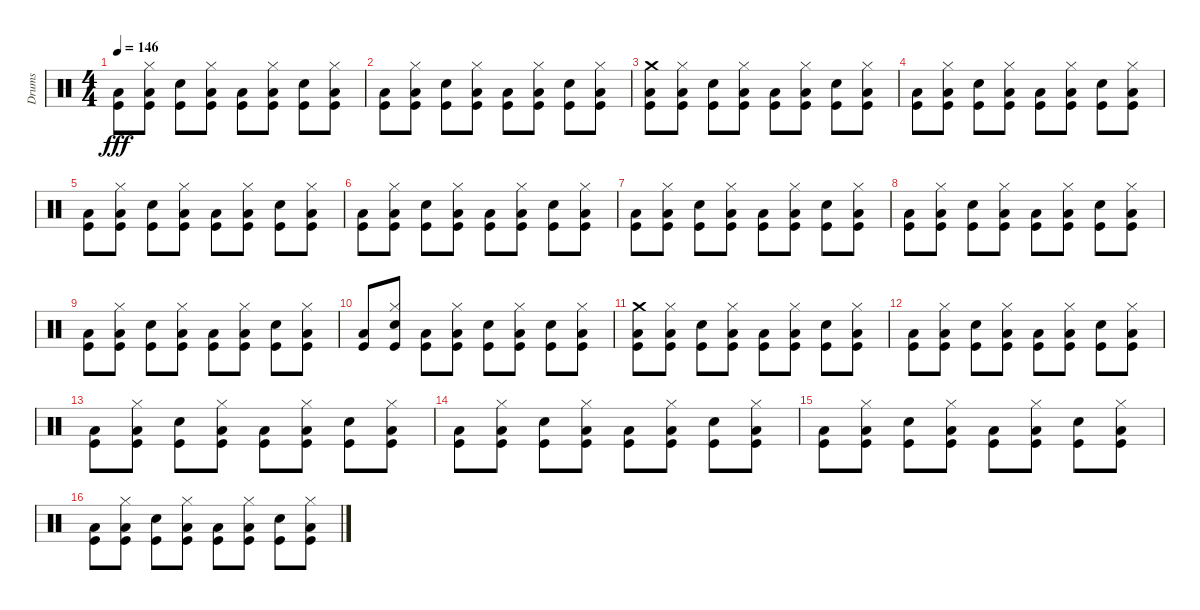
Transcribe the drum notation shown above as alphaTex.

\track ("Drums" "Drums") {instrument percussion}
\staff {score}
\articulation defaults
\ts (4 4)
\tempo 146
\clef neutral
\ks c
("Low Floor Tom (hit)" "Kick (hit)").8{dy fff} ("Hi-Hat (closed)" "Low Floor Tom (hit)" "Kick (hit)").8 ("Electric Snare (hit)" "Kick (hit)").8 ("Hi-Hat (closed)" "Low Floor Tom (hit)" "Kick (hit)").8 ("Low Floor Tom (hit)" "Kick (hit)").8 ("Hi-Hat (closed)" "Low Floor Tom (hit)" "Kick (hit)").8 ("Electric Snare (hit)" "Kick (hit)").8 ("Hi-Hat (closed)" "Low Floor Tom (hit)" "Kick (hit)").8 |
("Low Floor Tom (hit)" "Kick (hit)").8 ("Hi-Hat (closed)" "Low Floor Tom (hit)" "Kick (hit)").8 ("Electric Snare (hit)" "Kick (hit)").8 ("Hi-Hat (closed)" "Low Floor Tom (hit)" "Kick (hit)").8 ("Low Floor Tom (hit)" "Kick (hit)").8 ("Hi-Hat (closed)" "Low Floor Tom (hit)" "Kick (hit)").8 ("Electric Snare (hit)" "Kick (hit)").8 ("Hi-Hat (closed)" "Low Floor Tom (hit)" "Kick (hit)").8 |
("Crash medium (hit)" "Low Floor Tom (hit)" "Kick (hit)").8 ("Hi-Hat (closed)" "Low Floor Tom (hit)" "Kick (hit)").8 ("Electric Snare (hit)" "Kick (hit)").8 ("Hi-Hat (closed)" "Low Floor Tom (hit)" "Kick (hit)").8 ("Low Floor Tom (hit)" "Kick (hit)").8 ("Hi-Hat (closed)" "Low Floor Tom (hit)" "Kick (hit)").8 ("Electric Snare (hit)" "Kick (hit)").8 ("Hi-Hat (closed)" "Low Floor Tom (hit)" "Kick (hit)").8 |
("Low Floor Tom (hit)" "Kick (hit)").8 ("Hi-Hat (closed)" "Low Floor Tom (hit)" "Kick (hit)").8 ("Electric Snare (hit)" "Kick (hit)").8 ("Hi-Hat (closed)" "Low Floor Tom (hit)" "Kick (hit)").8 ("Low Floor Tom (hit)" "Kick (hit)").8 ("Hi-Hat (closed)" "Low Floor Tom (hit)" "Kick (hit)").8 ("Electric Snare (hit)" "Kick (hit)").8 ("Hi-Hat (closed)" "Low Floor Tom (hit)" "Kick (hit)").8 |
("Low Floor Tom (hit)" "Kick (hit)").8 ("Hi-Hat (closed)" "Low Floor Tom (hit)" "Kick (hit)").8 ("Electric Snare (hit)" "Kick (hit)").8 ("Hi-Hat (closed)" "Low Floor Tom (hit)" "Kick (hit)").8 ("Low Floor Tom (hit)" "Kick (hit)").8 ("Hi-Hat (closed)" "Low Floor Tom (hit)" "Kick (hit)").8 ("Electric Snare (hit)" "Kick (hit)").8 ("Hi-Hat (closed)" "Low Floor Tom (hit)" "Kick (hit)").8 |
("Low Floor Tom (hit)" "Kick (hit)").8 ("Hi-Hat (closed)" "Low Floor Tom (hit)" "Kick (hit)").8 ("Electric Snare (hit)" "Kick (hit)").8 ("Hi-Hat (closed)" "Low Floor Tom (hit)" "Kick (hit)").8 ("Low Floor Tom (hit)" "Kick (hit)").8 ("Hi-Hat (closed)" "Low Floor Tom (hit)" "Kick (hit)").8 ("Electric Snare (hit)" "Kick (hit)").8 ("Hi-Hat (closed)" "Low Floor Tom (hit)" "Kick (hit)").8 |
("Low Floor Tom (hit)" "Kick (hit)").8 ("Hi-Hat (closed)" "Low Floor Tom (hit)" "Kick (hit)").8 ("Electric Snare (hit)" "Kick (hit)").8 ("Hi-Hat (closed)" "Low Floor Tom (hit)" "Kick (hit)").8 ("Low Floor Tom (hit)" "Kick (hit)").8 ("Hi-Hat (closed)" "Low Floor Tom (hit)" "Kick (hit)").8 ("Electric Snare (hit)" "Kick (hit)").8 ("Hi-Hat (closed)" "Low Floor Tom (hit)" "Kick (hit)").8 |
("Low Floor Tom (hit)" "Kick (hit)").8 ("Hi-Hat (closed)" "Low Floor Tom (hit)" "Kick (hit)").8 ("Electric Snare (hit)" "Kick (hit)").8 ("Hi-Hat (closed)" "Low Floor Tom (hit)" "Kick (hit)").8 ("Low Floor Tom (hit)" "Kick (hit)").8 ("Hi-Hat (closed)" "Low Floor Tom (hit)" "Kick (hit)").8 ("Electric Snare (hit)" "Kick (hit)").8 ("Hi-Hat (closed)" "Low Floor Tom (hit)" "Kick (hit)").8 |
("Low Floor Tom (hit)" "Kick (hit)").8 ("Hi-Hat (closed)" "Low Floor Tom (hit)" "Kick (hit)").8 ("Electric Snare (hit)" "Kick (hit)").8 ("Hi-Hat (closed)" "Low Floor Tom (hit)" "Kick (hit)").8 ("Low Floor Tom (hit)" "Kick (hit)").8 ("Hi-Hat (closed)" "Low Floor Tom (hit)" "Kick (hit)").8 ("Electric Snare (hit)" "Kick (hit)").8 ("Hi-Hat (closed)" "Low Floor Tom (hit)" "Kick (hit)").8 |
("Low Floor Tom (hit)" "Kick (hit)").8 ("Hi-Hat (closed)" "Electric Snare (hit)" "Kick (hit)").8 ("Low Floor Tom (hit)" "Kick (hit)").8 ("Hi-Hat (closed)" "Low Floor Tom (hit)" "Kick (hit)").8 ("Electric Snare (hit)" "Kick (hit)").8 ("Hi-Hat (closed)" "Low Floor Tom (hit)" "Kick (hit)").8 ("Electric Snare (hit)" "Kick (hit)").8 ("Hi-Hat (closed)" "Low Floor Tom (hit)" "Kick (hit)").8 |
("Crash medium (hit)" "Low Floor Tom (hit)" "Kick (hit)").8 ("Hi-Hat (closed)" "Low Floor Tom (hit)" "Kick (hit)").8 ("Electric Snare (hit)" "Kick (hit)").8 ("Hi-Hat (closed)" "Low Floor Tom (hit)" "Kick (hit)").8 ("Low Floor Tom (hit)" "Kick (hit)").8 ("Hi-Hat (closed)" "Low Floor Tom (hit)" "Kick (hit)").8 ("Electric Snare (hit)" "Kick (hit)").8 ("Hi-Hat (closed)" "Low Floor Tom (hit)" "Kick (hit)").8 |
("Low Floor Tom (hit)" "Kick (hit)").8 ("Hi-Hat (closed)" "Low Floor Tom (hit)" "Kick (hit)").8 ("Electric Snare (hit)" "Kick (hit)").8 ("Hi-Hat (closed)" "Low Floor Tom (hit)" "Kick (hit)").8 ("Low Floor Tom (hit)" "Kick (hit)").8 ("Hi-Hat (closed)" "Low Floor Tom (hit)" "Kick (hit)").8 ("Electric Snare (hit)" "Kick (hit)").8 ("Hi-Hat (closed)" "Low Floor Tom (hit)" "Kick (hit)").8 |
("Low Floor Tom (hit)" "Kick (hit)").8 ("Hi-Hat (closed)" "Low Floor Tom (hit)" "Kick (hit)").8 ("Electric Snare (hit)" "Kick (hit)").8 ("Hi-Hat (closed)" "Low Floor Tom (hit)" "Kick (hit)").8 ("Low Floor Tom (hit)" "Kick (hit)").8 ("Hi-Hat (closed)" "Low Floor Tom (hit)" "Kick (hit)").8 ("Electric Snare (hit)" "Kick (hit)").8 ("Hi-Hat (closed)" "Low Floor Tom (hit)" "Kick (hit)").8 |
("Low Floor Tom (hit)" "Kick (hit)").8 ("Hi-Hat (closed)" "Low Floor Tom (hit)" "Kick (hit)").8 ("Electric Snare (hit)" "Kick (hit)").8 ("Hi-Hat (closed)" "Low Floor Tom (hit)" "Kick (hit)").8 ("Low Floor Tom (hit)" "Kick (hit)").8 ("Hi-Hat (closed)" "Low Floor Tom (hit)" "Kick (hit)").8 ("Electric Snare (hit)" "Kick (hit)").8 ("Hi-Hat (closed)" "Low Floor Tom (hit)" "Kick (hit)").8 |
("Low Floor Tom (hit)" "Kick (hit)").8 ("Hi-Hat (closed)" "Low Floor Tom (hit)" "Kick (hit)").8 ("Electric Snare (hit)" "Kick (hit)").8 ("Hi-Hat (closed)" "Low Floor Tom (hit)" "Kick (hit)").8 ("Low Floor Tom (hit)" "Kick (hit)").8 ("Hi-Hat (closed)" "Low Floor Tom (hit)" "Kick (hit)").8 ("Electric Snare (hit)" "Kick (hit)").8 ("Hi-Hat (closed)" "Low Floor Tom (hit)" "Kick (hit)").8 |
("Low Floor Tom (hit)" "Kick (hit)").8 ("Hi-Hat (closed)" "Low Floor Tom (hit)" "Kick (hit)").8 ("Electric Snare (hit)" "Kick (hit)").8 ("Hi-Hat (closed)" "Low Floor Tom (hit)" "Kick (hit)").8 ("Low Floor Tom (hit)" "Kick (hit)").8 ("Hi-Hat (closed)" "Low Floor Tom (hit)" "Kick (hit)").8 ("Electric Snare (hit)" "Kick (hit)").8 ("Hi-Hat (closed)" "Low Floor Tom (hit)" "Kick (hit)").8
